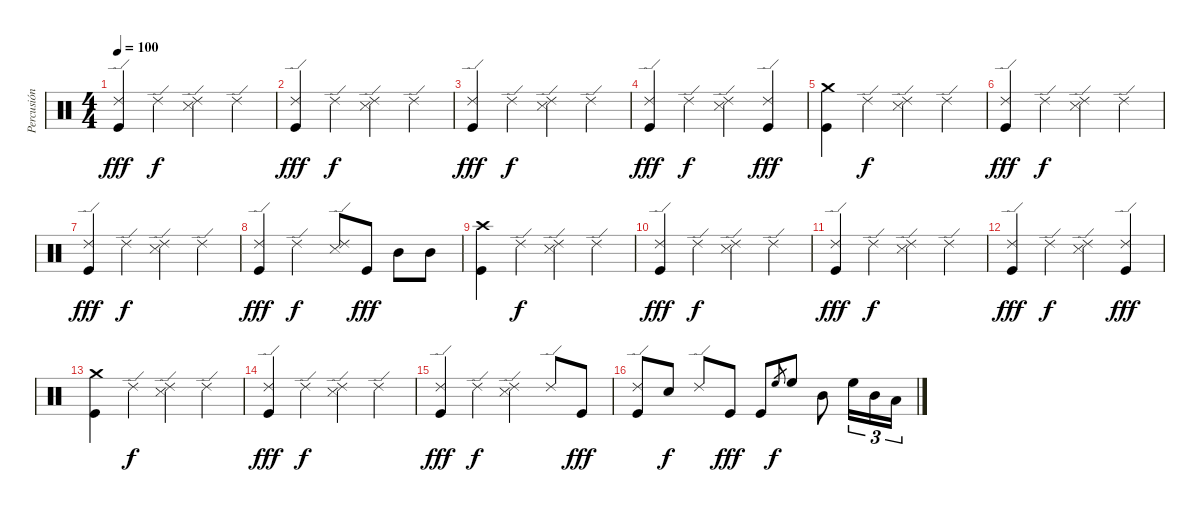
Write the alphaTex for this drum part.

\track ("Percusión" "Percusión") {instrument percussion}
\staff {score}
\articulation defaults
\ts (4 4)
\tempo 100
\clef neutral
\ks c
("Ride (edge) 2" "Kick (hit)").4{dy fff} "Ride (edge) 2".4{dy f} ("Ride (edge) 2" "Snare (side stick) 3").4 "Ride (edge) 2".4 |
("Ride (edge) 2" "Kick (hit)").4{dy fff} "Ride (edge) 2".4{dy f} ("Ride (edge) 2" "Snare (side stick) 3").4 "Ride (edge) 2".4 |
("Ride (edge) 2" "Kick (hit)").4{dy fff} "Ride (edge) 2".4{dy f} ("Ride (edge) 2" "Snare (side stick) 3").4 "Ride (edge) 2".4 |
("Ride (edge) 2" "Kick (hit)").4{dy fff} "Ride (edge) 2".4{dy f} ("Ride (edge) 2" "Snare (side stick) 3").4 ("Ride (edge) 2" "Kick (hit)").4{dy fff} |
("Crash medium (hit)" "Kick (hit)").4 "Ride (edge) 2".4{dy f} ("Ride (edge) 2" "Snare (side stick) 3").4 "Ride (edge) 2".4 |
("Ride (edge) 2" "Kick (hit)").4{dy fff} "Ride (edge) 2".4{dy f} ("Ride (edge) 2" "Snare (side stick) 3").4 "Ride (edge) 2".4 |
("Ride (edge) 2" "Kick (hit)").4{dy fff} "Ride (edge) 2".4{dy f} ("Ride (edge) 2" "Snare (side stick) 3").4 "Ride (edge) 2".4 |
("Ride (edge) 2" "Kick (hit)").4{dy fff} "Ride (edge) 2".4{dy f} ("Ride (edge) 2" "Snare (side stick) 3").8 "Kick (hit)".8{dy fff} "Mid Tom (hit)".8 "Mid Tom (hit)".8 |
("Crash high (hit)" "Kick (hit)").4 "Ride (edge) 2".4{dy f} ("Ride (edge) 2" "Snare (side stick) 3").4 "Ride (edge) 2".4 |
("Ride (edge) 2" "Kick (hit)").4{dy fff} "Ride (edge) 2".4{dy f} ("Ride (edge) 2" "Snare (side stick) 3").4 "Ride (edge) 2".4 |
("Ride (edge) 2" "Kick (hit)").4{dy fff} "Ride (edge) 2".4{dy f} ("Ride (edge) 2" "Snare (side stick) 3").4 "Ride (edge) 2".4 |
("Ride (edge) 2" "Kick (hit)").4{dy fff} "Ride (edge) 2".4{dy f} ("Ride (edge) 2" "Snare (side stick) 3").4 ("Ride (edge) 2" "Kick (hit)").4{dy fff} |
("Crash medium (hit)" "Kick (hit)").4 "Ride (edge) 2".4{dy f} ("Ride (edge) 2" "Snare (side stick) 3").4 "Ride (edge) 2".4 |
("Ride (edge) 2" "Kick (hit)").4{dy fff} "Ride (edge) 2".4{dy f} ("Ride (edge) 2" "Snare (side stick) 3").4 "Ride (edge) 2".4 |
("Ride (edge) 2" "Kick (hit)").4{dy fff} "Ride (edge) 2".4{dy f} ("Ride (edge) 2" "Snare (side stick) 3").4 "Ride (edge) 2".8 "Kick (hit)".8{dy fff} |
("Ride (edge) 2" "Kick (hit)").8 "Electric Snare (hit)".8{dy f} "Ride (edge) 2".8 "Kick (hit)".8{dy fff} "Kick (hit)".8 "High Floor Tom (hit)".8{gr dy f} "High Floor Tom (hit)".8 "Mid Tom (hit)".8 "High Floor Tom (hit)".16{tu (3 2)} "Mid Tom (hit)".16{tu (3 2)} "Low Tom (hit)".16{tu (3 2)}
